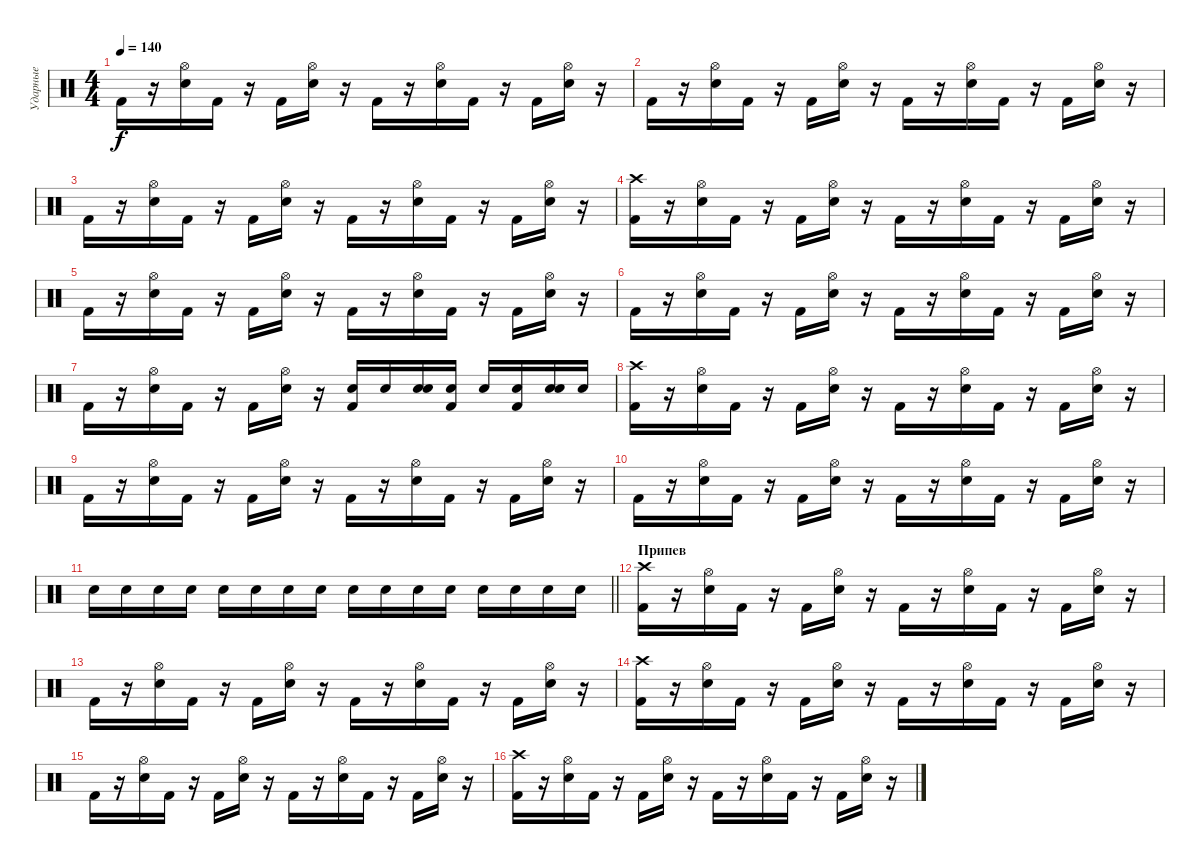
\track ("Ударные" "Ударные") {instrument percussion}
\staff {score}
\articulation defaults
\ts (4 4)
\tempo 140
\clef neutral
\ks c "Kick (hit) 2".16{dy f}
r.16 ("Electric Snare (hit)" "Hi-Hat (open)").16 "Kick (hit) 2".16 r.16 "Kick (hit) 2".16 ("Electric Snare (hit)" "Hi-Hat (open)").16 r.16 "Kick (hit) 2".16 r.16 ("Electric Snare (hit)" "Hi-Hat (open)").16 "Kick (hit) 2".16 r.16 "Kick (hit) 2".16 ("Electric Snare (hit)" "Hi-Hat (open)").16 r.16 |
"Kick (hit) 2".16 r.16 ("Electric Snare (hit)" "Hi-Hat (open)").16 "Kick (hit) 2".16 r.16 "Kick (hit) 2".16 ("Electric Snare (hit)" "Hi-Hat (open)").16 r.16 "Kick (hit) 2".16 r.16 ("Electric Snare (hit)" "Hi-Hat (open)").16 "Kick (hit) 2".16 r.16 "Kick (hit) 2".16 ("Electric Snare (hit)" "Hi-Hat (open)").16 r.16 |
"Kick (hit) 2".16 r.16 ("Electric Snare (hit)" "Hi-Hat (open)").16 "Kick (hit) 2".16 r.16 "Kick (hit) 2".16 ("Electric Snare (hit)" "Hi-Hat (open)").16 r.16 "Kick (hit) 2".16 r.16 ("Electric Snare (hit)" "Hi-Hat (open)").16 "Kick (hit) 2".16 r.16 "Kick (hit) 2".16 ("Electric Snare (hit)" "Hi-Hat (open)").16 r.16 |
("Kick (hit) 2" "Crash high (hit)").16 r.16 ("Electric Snare (hit)" "Hi-Hat (open)").16 "Kick (hit) 2".16 r.16 "Kick (hit) 2".16 ("Electric Snare (hit)" "Hi-Hat (open)").16 r.16 "Kick (hit) 2".16 r.16 ("Electric Snare (hit)" "Hi-Hat (open)").16 "Kick (hit) 2".16 r.16 "Kick (hit) 2".16 ("Electric Snare (hit)" "Hi-Hat (open)").16 r.16 |
"Kick (hit) 2".16 r.16 ("Electric Snare (hit)" "Hi-Hat (open)").16 "Kick (hit) 2".16 r.16 "Kick (hit) 2".16 ("Electric Snare (hit)" "Hi-Hat (open)").16 r.16 "Kick (hit) 2".16 r.16 ("Electric Snare (hit)" "Hi-Hat (open)").16 "Kick (hit) 2".16 r.16 "Kick (hit) 2".16 ("Electric Snare (hit)" "Hi-Hat (open)").16 r.16 |
"Kick (hit) 2".16 r.16 ("Electric Snare (hit)" "Hi-Hat (open)").16 "Kick (hit) 2".16 r.16 "Kick (hit) 2".16 ("Electric Snare (hit)" "Hi-Hat (open)").16 r.16 "Kick (hit) 2".16 r.16 ("Electric Snare (hit)" "Hi-Hat (open)").16 "Kick (hit) 2".16 r.16 "Kick (hit) 2".16 ("Electric Snare (hit)" "Hi-Hat (open)").16 r.16 |
"Kick (hit) 2".16 r.16 ("Electric Snare (hit)" "Hi-Hat (open)").16 "Kick (hit) 2".16 r.16 "Kick (hit) 2".16 ("Electric Snare (hit)" "Hi-Hat (open)").16 r.16 ("Kick (hit) 2" "Electric Snare (hit)").16 "Electric Snare (hit)".16 ("Electric Snare (hit)" "Electric Snare (hit)").16 ("Kick (hit) 2" "Electric Snare (hit)").16 "Electric Snare (hit)".16 ("Kick (hit) 2" "Electric Snare (hit)").16 ("Electric Snare (hit)" "Electric Snare (hit)").16 "Electric Snare (hit)".16 |
("Kick (hit) 2" "Crash high (hit)").16 r.16 ("Electric Snare (hit)" "Hi-Hat (open)").16 "Kick (hit) 2".16 r.16 "Kick (hit) 2".16 ("Electric Snare (hit)" "Hi-Hat (open)").16 r.16 "Kick (hit) 2".16 r.16 ("Electric Snare (hit)" "Hi-Hat (open)").16 "Kick (hit) 2".16 r.16 "Kick (hit) 2".16 ("Electric Snare (hit)" "Hi-Hat (open)").16 r.16 |
"Kick (hit) 2".16 r.16 ("Electric Snare (hit)" "Hi-Hat (open)").16 "Kick (hit) 2".16 r.16 "Kick (hit) 2".16 ("Electric Snare (hit)" "Hi-Hat (open)").16 r.16 "Kick (hit) 2".16 r.16 ("Electric Snare (hit)" "Hi-Hat (open)").16 "Kick (hit) 2".16 r.16 "Kick (hit) 2".16 ("Electric Snare (hit)" "Hi-Hat (open)").16 r.16 |
"Kick (hit) 2".16 r.16 ("Electric Snare (hit)" "Hi-Hat (open)").16 "Kick (hit) 2".16 r.16 "Kick (hit) 2".16 ("Electric Snare (hit)" "Hi-Hat (open)").16 r.16 "Kick (hit) 2".16 r.16 ("Electric Snare (hit)" "Hi-Hat (open)").16 "Kick (hit) 2".16 r.16 "Kick (hit) 2".16 ("Electric Snare (hit)" "Hi-Hat (open)").16 r.16 |
\barLineRight lightlight "Electric Snare (hit)".16 "Electric Snare (hit)".16 "Electric Snare (hit)".16 "Electric Snare (hit)".16 "Electric Snare (hit)".16 "Electric Snare (hit)".16 "Electric Snare (hit)".16 "Electric Snare (hit)".16 "Electric Snare (hit)".16 "Electric Snare (hit)".16 "Electric Snare (hit)".16 "Electric Snare (hit)".16 "Electric Snare (hit)".16 "Electric Snare (hit)".16 "Electric Snare (hit)".16 "Electric Snare (hit)".16
|
\section ("" "Припев")
("Kick (hit) 2" "Crash high (hit)").16 r.16 ("Electric Snare (hit)" "Hi-Hat (open)").16 "Kick (hit) 2".16 r.16 "Kick (hit) 2".16 ("Electric Snare (hit)" "Hi-Hat (open)").16 r.16 "Kick (hit) 2".16 r.16 ("Electric Snare (hit)" "Hi-Hat (open)").16 "Kick (hit) 2".16 r.16 "Kick (hit) 2".16 ("Electric Snare (hit)" "Hi-Hat (open)").16 r.16 |
"Kick (hit) 2".16 r.16 ("Electric Snare (hit)" "Hi-Hat (open)").16 "Kick (hit) 2".16 r.16 "Kick (hit) 2".16 ("Electric Snare (hit)" "Hi-Hat (open)").16 r.16 "Kick (hit) 2".16 r.16 ("Electric Snare (hit)" "Hi-Hat (open)").16 "Kick (hit) 2".16 r.16 "Kick (hit) 2".16 ("Electric Snare (hit)" "Hi-Hat (open)").16 r.16 |
("Kick (hit) 2" "Crash high (hit)").16 r.16 ("Electric Snare (hit)" "Hi-Hat (open)").16 "Kick (hit) 2".16 r.16 "Kick (hit) 2".16 ("Electric Snare (hit)" "Hi-Hat (open)").16 r.16 "Kick (hit) 2".16 r.16 ("Electric Snare (hit)" "Hi-Hat (open)").16 "Kick (hit) 2".16 r.16 "Kick (hit) 2".16 ("Electric Snare (hit)" "Hi-Hat (open)").16 r.16 |
"Kick (hit) 2".16 r.16 ("Electric Snare (hit)" "Hi-Hat (open)").16 "Kick (hit) 2".16 r.16 "Kick (hit) 2".16 ("Electric Snare (hit)" "Hi-Hat (open)").16 r.16 "Kick (hit) 2".16 r.16 ("Electric Snare (hit)" "Hi-Hat (open)").16 "Kick (hit) 2".16 r.16 "Kick (hit) 2".16 ("Electric Snare (hit)" "Hi-Hat (open)").16 r.16 |
("Kick (hit) 2" "Crash high (hit)").16 r.16 ("Electric Snare (hit)" "Hi-Hat (open)").16 "Kick (hit) 2".16 r.16 "Kick (hit) 2".16 ("Electric Snare (hit)" "Hi-Hat (open)").16 r.16 "Kick (hit) 2".16 r.16 ("Electric Snare (hit)" "Hi-Hat (open)").16 "Kick (hit) 2".16 r.16 "Kick (hit) 2".16 ("Electric Snare (hit)" "Hi-Hat (open)").16 r.16
